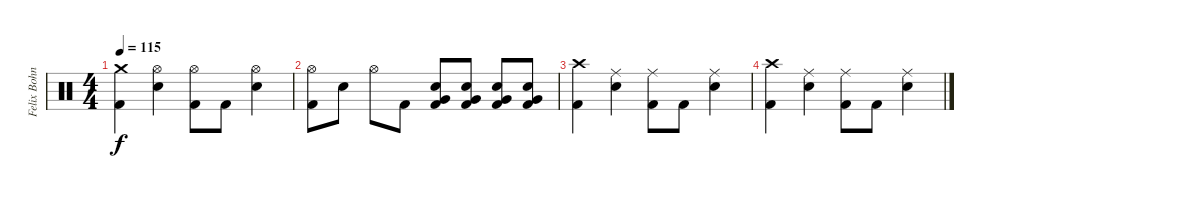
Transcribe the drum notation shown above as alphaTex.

\track ("Felix Bohnke" "Felix Bohn") {instrument percussion}
\staff {score}
\articulation defaults
\ts (4 4)
\tempo 115
\clef neutral
\ks c
("Crash medium (hit)" "Kick (hit) 2").4{dy f} ("Hi-Hat (open)" "Electric Snare (hit)").4 ("Hi-Hat (open)" "Kick (hit) 2").8 "Kick (hit) 2".8 ("Hi-Hat (open)" "Electric Snare (hit)").4 |
("Hi-Hat (open)" "Kick (hit) 2").8 "Electric Snare (hit)".8 "Hi-Hat (open)".8 "Kick (hit) 2".8 ("Very Low Tom (hit)" "Electric Snare (hit)" "Kick (hit) 2").8 ("Very Low Tom (hit)" "Electric Snare (hit)" "Kick (hit) 2").8 ("Very Low Tom (hit)" "Electric Snare (hit)" "Kick (hit) 2").8 ("Very Low Tom (hit)" "Electric Snare (hit)" "Kick (hit) 2").8 |
("Crash high (hit)" "Kick (hit) 2").4 ("Ride (middle)" "Electric Snare (hit)").4 ("Ride (middle)" "Kick (hit) 2").8 "Kick (hit) 2".8 ("Ride (middle)" "Electric Snare (hit)").4 |
("Crash high (hit)" "Kick (hit) 2").4 ("Ride (middle)" "Electric Snare (hit)").4 ("Ride (middle)" "Kick (hit) 2").8 "Kick (hit) 2".8 ("Ride (middle)" "Electric Snare (hit)").4
